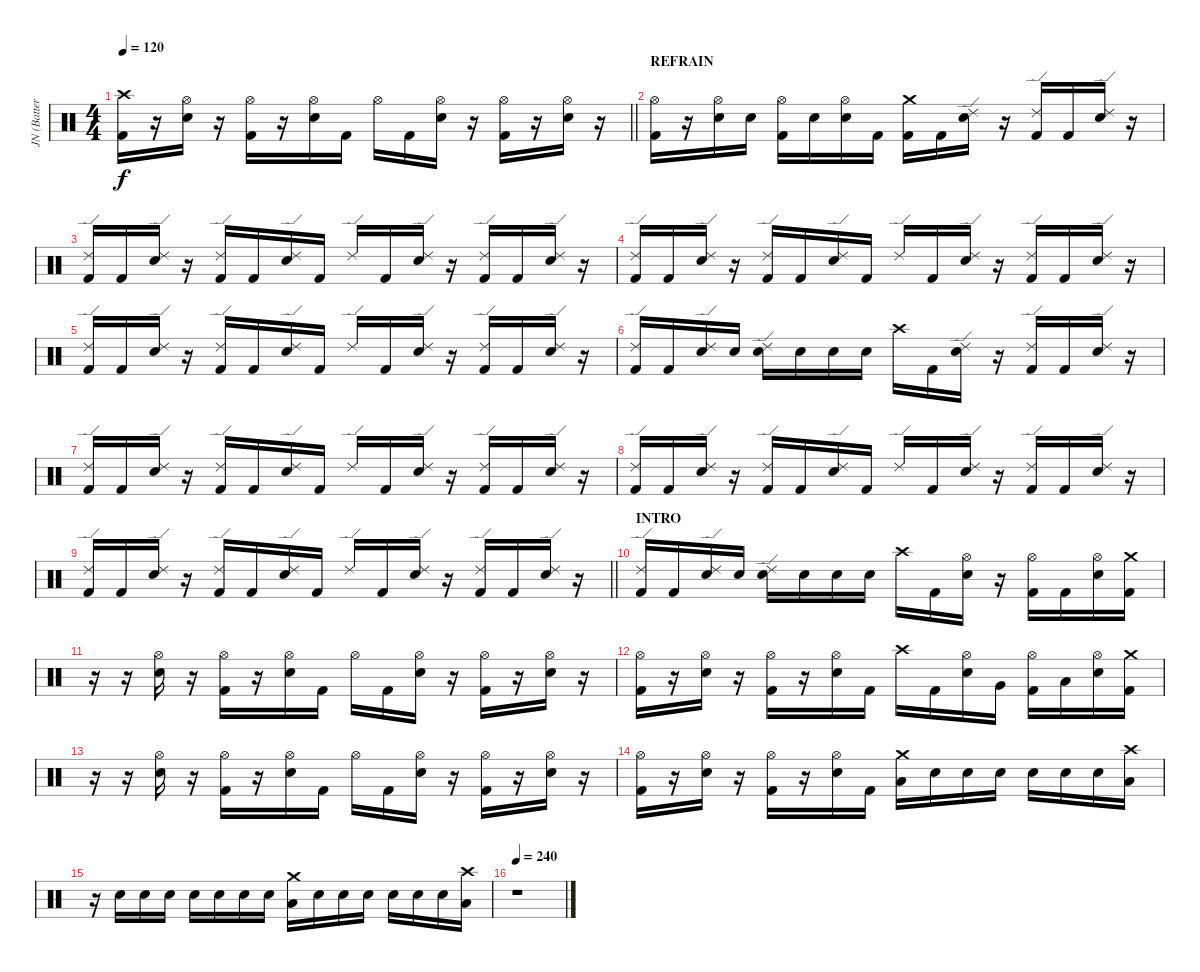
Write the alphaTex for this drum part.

\track ("JN (Batterie)" "JN (Batter") {instrument percussion}
\staff {score}
\articulation defaults
\ts (4 4)
\tempo 120
\clef neutral
\barLineRight lightlight
\ks c
("Crash high (hit)" "Kick (hit) 2").16{dy f} r.16 ("Hi-Hat (open)" "Electric Snare (hit)").16 r.16 ("Hi-Hat (open)" "Kick (hit) 2").16 r.16 ("Hi-Hat (open)" "Electric Snare (hit)").16 "Kick (hit) 2".16 "Hi-Hat (open)".16 "Kick (hit) 2".16 ("Hi-Hat (open)" "Electric Snare (hit)").16 r.16 ("Hi-Hat (open)" "Kick (hit) 2").16 r.16 ("Hi-Hat (open)" "Electric Snare (hit)").16 r.16 |
\section ("" "REFRAIN")
("Hi-Hat (open)" "Kick (hit) 2").16 r.16 ("Hi-Hat (open)" "Electric Snare (hit)").16 "Electric Snare (hit)".16 ("Hi-Hat (open)" "Kick (hit) 2").16 "Electric Snare (hit)".16 ("Hi-Hat (open)" "Electric Snare (hit)").16 "Kick (hit) 2".16 ("Crash medium (hit)" "Kick (hit) 2").16 "Kick (hit) 2".16 ("Ride (edge) 2" "Electric Snare (hit)").16 r.16 ("Ride (edge) 2" "Kick (hit) 2").16 "Kick (hit) 2".16 ("Ride (edge) 2" "Electric Snare (hit)").16 r.16 |
("Ride (edge) 2" "Kick (hit) 2").16 "Kick (hit) 2".16 ("Ride (edge) 2" "Electric Snare (hit)").16 r.16 ("Ride (edge) 2" "Kick (hit) 2").16 "Kick (hit) 2".16 ("Ride (edge) 2" "Electric Snare (hit)").16 "Kick (hit) 2".16 "Ride (edge) 2".16 "Kick (hit) 2".16 ("Ride (edge) 2" "Electric Snare (hit)").16 r.16 ("Ride (edge) 2" "Kick (hit) 2").16 "Kick (hit) 2".16 ("Ride (edge) 2" "Electric Snare (hit)").16 r.16 |
("Ride (edge) 2" "Kick (hit) 2").16 "Kick (hit) 2".16 ("Ride (edge) 2" "Electric Snare (hit)").16 r.16 ("Ride (edge) 2" "Kick (hit) 2").16 "Kick (hit) 2".16 ("Ride (edge) 2" "Electric Snare (hit)").16 "Kick (hit) 2".16 "Ride (edge) 2".16 "Kick (hit) 2".16 ("Ride (edge) 2" "Electric Snare (hit)").16 r.16 ("Ride (edge) 2" "Kick (hit) 2").16 "Kick (hit) 2".16 ("Ride (edge) 2" "Electric Snare (hit)").16 r.16 |
("Ride (edge) 2" "Kick (hit) 2").16 "Kick (hit) 2".16 ("Ride (edge) 2" "Electric Snare (hit)").16 r.16 ("Ride (edge) 2" "Kick (hit) 2").16 "Kick (hit) 2".16 ("Ride (edge) 2" "Electric Snare (hit)").16 "Kick (hit) 2".16 "Ride (edge) 2".16 "Kick (hit) 2".16 ("Ride (edge) 2" "Electric Snare (hit)").16 r.16 ("Ride (edge) 2" "Kick (hit) 2").16 "Kick (hit) 2".16 ("Ride (edge) 2" "Electric Snare (hit)").16 r.16 |
("Ride (edge) 2" "Kick (hit) 2").16 "Kick (hit) 2".16 ("Ride (edge) 2" "Electric Snare (hit)").16 "Electric Snare (hit)".16 ("Ride (edge) 2" "Electric Snare (hit)").16 "Electric Snare (hit)".16 "Electric Snare (hit)".16 "Electric Snare (hit)".16 "Crash high (hit)".16 "Kick (hit) 2".16 ("Ride (edge) 2" "Electric Snare (hit)").16 r.16 ("Ride (edge) 2" "Kick (hit) 2").16 "Kick (hit) 2".16 ("Ride (edge) 2" "Electric Snare (hit)").16 r.16 |
("Ride (edge) 2" "Kick (hit) 2").16 "Kick (hit) 2".16 ("Ride (edge) 2" "Electric Snare (hit)").16 r.16 ("Ride (edge) 2" "Kick (hit) 2").16 "Kick (hit) 2".16 ("Ride (edge) 2" "Electric Snare (hit)").16 "Kick (hit) 2".16 "Ride (edge) 2".16 "Kick (hit) 2".16 ("Ride (edge) 2" "Electric Snare (hit)").16 r.16 ("Ride (edge) 2" "Kick (hit) 2").16 "Kick (hit) 2".16 ("Ride (edge) 2" "Electric Snare (hit)").16 r.16 |
("Ride (edge) 2" "Kick (hit) 2").16 "Kick (hit) 2".16 ("Ride (edge) 2" "Electric Snare (hit)").16 r.16 ("Ride (edge) 2" "Kick (hit) 2").16 "Kick (hit) 2".16 ("Ride (edge) 2" "Electric Snare (hit)").16 "Kick (hit) 2".16 "Ride (edge) 2".16 "Kick (hit) 2".16 ("Ride (edge) 2" "Electric Snare (hit)").16 r.16 ("Ride (edge) 2" "Kick (hit) 2").16 "Kick (hit) 2".16 ("Ride (edge) 2" "Electric Snare (hit)").16 r.16 |
\barLineRight lightlight
("Ride (edge) 2" "Kick (hit) 2").16 "Kick (hit) 2".16 ("Ride (edge) 2" "Electric Snare (hit)").16 r.16 ("Ride (edge) 2" "Kick (hit) 2").16 "Kick (hit) 2".16 ("Ride (edge) 2" "Electric Snare (hit)").16 "Kick (hit) 2".16 "Ride (edge) 2".16 "Kick (hit) 2".16 ("Ride (edge) 2" "Electric Snare (hit)").16 r.16 ("Ride (edge) 2" "Kick (hit) 2").16 "Kick (hit) 2".16 ("Ride (edge) 2" "Electric Snare (hit)").16 r.16 |
\section ("" "INTRO")
("Ride (edge) 2" "Kick (hit) 2").16 "Kick (hit) 2".16 ("Ride (edge) 2" "Electric Snare (hit)").16 "Electric Snare (hit)".16 ("Ride (edge) 2" "Electric Snare (hit)").16 "Electric Snare (hit)".16 "Electric Snare (hit)".16 "Electric Snare (hit)".16 "Crash high (hit)".16 "Kick (hit) 2".16 ("Hi-Hat (open)" "Electric Snare (hit)").16 r.16 ("Hi-Hat (open)" "Kick (hit) 2").16 "Kick (hit) 2".16 ("Hi-Hat (open)" "Electric Snare (hit)").16 ("Crash medium (hit)" "Kick (hit) 2").16 |
r.16 r.16 ("Hi-Hat (open)" "Electric Snare (hit)").16 r.16 ("Hi-Hat (open)" "Kick (hit) 2").16 r.16 ("Hi-Hat (open)" "Electric Snare (hit)").16 "Kick (hit) 2".16 "Hi-Hat (open)".16 "Kick (hit) 2".16 ("Hi-Hat (open)" "Electric Snare (hit)").16 r.16 ("Hi-Hat (open)" "Kick (hit) 2").16 r.16 ("Hi-Hat (open)" "Electric Snare (hit)").16 r.16 |
("Hi-Hat (open)" "Kick (hit) 2").16 r.16 ("Hi-Hat (open)" "Electric Snare (hit)").16 r.16 ("Hi-Hat (open)" "Kick (hit) 2").16 r.16 ("Hi-Hat (open)" "Electric Snare (hit)").16 "Kick (hit) 2".16 "Crash high (hit)".16 "Kick (hit) 2".16 ("Hi-Hat (open)" "Electric Snare (hit)").16 "Very Low Tom (hit)".16 ("Hi-Hat (open)" "Kick (hit) 2").16 "Low Tom (hit)".16 ("Hi-Hat (open)" "Electric Snare (hit)").16 ("Crash medium (hit)" "Kick (hit) 2").16 |
r.16 r.16 ("Hi-Hat (open)" "Electric Snare (hit)").16 r.16 ("Hi-Hat (open)" "Kick (hit) 2").16 r.16 ("Hi-Hat (open)" "Electric Snare (hit)").16 "Kick (hit) 2".16 "Hi-Hat (open)".16 "Kick (hit) 2".16 ("Hi-Hat (open)" "Electric Snare (hit)").16 r.16 ("Hi-Hat (open)" "Kick (hit) 2").16 r.16 ("Hi-Hat (open)" "Electric Snare (hit)").16 r.16 |
("Hi-Hat (open)" "Kick (hit) 2").16 r.16 ("Hi-Hat (open)" "Electric Snare (hit)").16 r.16 ("Hi-Hat (open)" "Kick (hit) 2").16 r.16 ("Hi-Hat (open)" "Electric Snare (hit)").16 "Kick (hit) 2".16 ("Crash medium (hit)" "Low Tom (hit)").16 "Electric Snare (hit)".16 "Electric Snare (hit)".16 "Electric Snare (hit)".16 "Electric Snare (hit)".16 "Electric Snare (hit)".16 "Electric Snare (hit)".16 ("Crash high (hit)" "Low Tom (hit)").16 |
r.16 "Electric Snare (hit)".16 "Electric Snare (hit)".16 "Electric Snare (hit)".16 "Electric Snare (hit)".16 "Electric Snare (hit)".16 "Electric Snare (hit)".16 "Electric Snare (hit)".16 ("Low Tom (hit)" "Crash medium (hit)").16 "Electric Snare (hit)".16 "Electric Snare (hit)".16 "Electric Snare (hit)".16 "Electric Snare (hit)".16 "Electric Snare (hit)".16 "Electric Snare (hit)".16 ("Low Tom (hit)" "Crash high (hit)").16 |
\tempo 240
r.1
